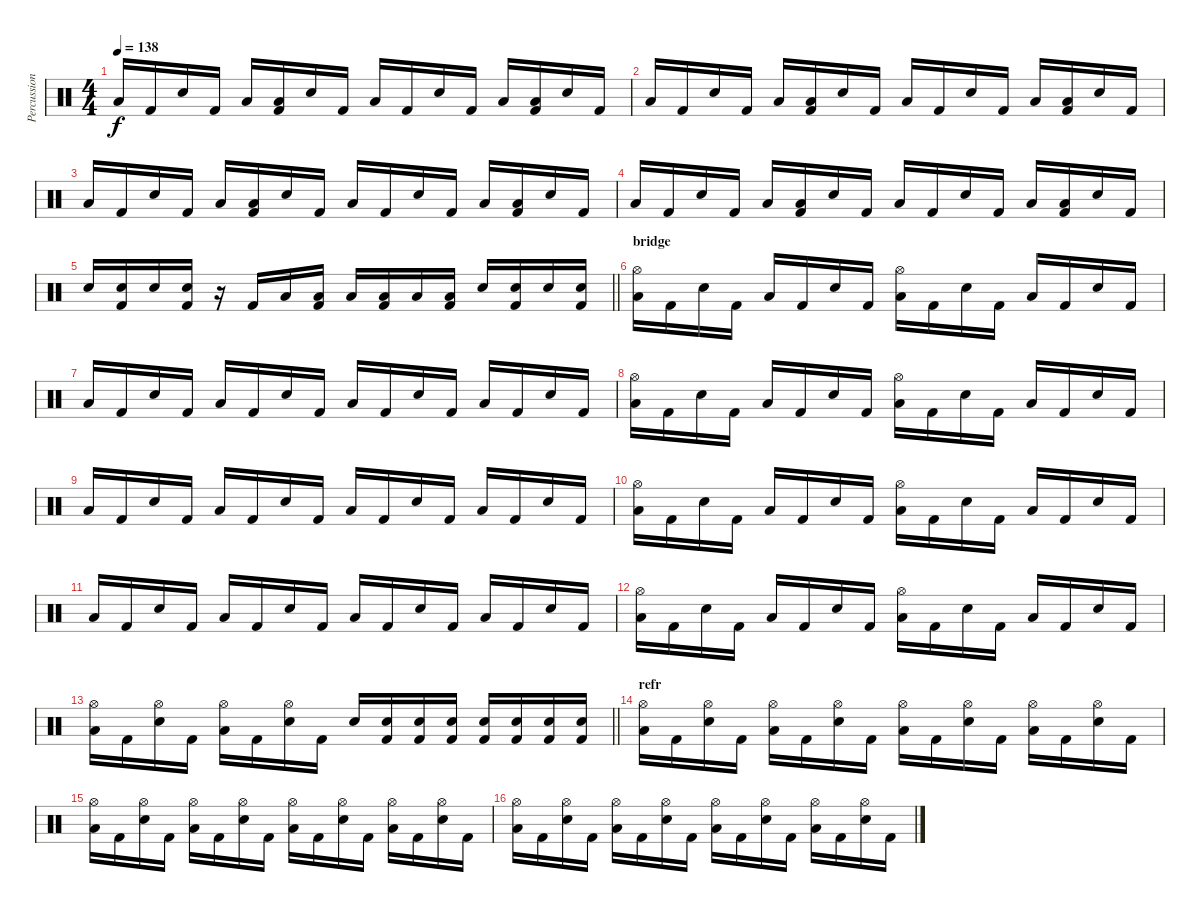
\track ("Percussion" "Percussion") {instrument percussion}
\staff {score}
\articulation defaults
\ts (4 4)
\tempo 138
\clef neutral
\ks c "Low Tom (hit)".16{dy f} "Kick (hit) 2".16 "Snare (hit) 2".16 "Kick (hit) 2".16 "Low Tom (hit)".16
("Low Tom (hit)" "Kick (hit) 2").16 "Snare (hit) 2".16 "Kick (hit) 2".16 "Low Tom (hit)".16 "Kick (hit) 2".16 "Snare (hit) 2".16 "Kick (hit) 2".16 "Low Tom (hit)".16 ("Low Tom (hit)" "Kick (hit) 2").16 "Snare (hit) 2".16 "Kick (hit) 2".16 |
"Low Tom (hit)".16 "Kick (hit) 2".16 "Snare (hit) 2".16 "Kick (hit) 2".16 "Low Tom (hit)".16 ("Low Tom (hit)" "Kick (hit) 2").16 "Snare (hit) 2".16 "Kick (hit) 2".16 "Low Tom (hit)".16 "Kick (hit) 2".16 "Snare (hit) 2".16 "Kick (hit) 2".16 "Low Tom (hit)".16 ("Low Tom (hit)" "Kick (hit) 2").16 "Snare (hit) 2".16 "Kick (hit) 2".16 |
"Low Tom (hit)".16 "Kick (hit) 2".16 "Snare (hit) 2".16 "Kick (hit) 2".16 "Low Tom (hit)".16 ("Low Tom (hit)" "Kick (hit) 2").16 "Snare (hit) 2".16 "Kick (hit) 2".16 "Low Tom (hit)".16 "Kick (hit) 2".16 "Snare (hit) 2".16 "Kick (hit) 2".16 "Low Tom (hit)".16 ("Low Tom (hit)" "Kick (hit) 2").16 "Snare (hit) 2".16 "Kick (hit) 2".16 |
"Low Tom (hit)".16 "Kick (hit) 2".16 "Snare (hit) 2".16 "Kick (hit) 2".16 "Low Tom (hit)".16 ("Low Tom (hit)" "Kick (hit) 2").16 "Snare (hit) 2".16 "Kick (hit) 2".16 "Low Tom (hit)".16 "Kick (hit) 2".16 "Snare (hit) 2".16 "Kick (hit) 2".16 "Low Tom (hit)".16 ("Low Tom (hit)" "Kick (hit) 2").16 "Snare (hit) 2".16 "Kick (hit) 2".16 |
\barLineRight lightlight "Snare (hit) 2".16
("Snare (hit) 2" "Kick (hit) 2").16 "Snare (hit) 2".16 ("Snare (hit) 2" "Kick (hit) 2").16 r.16 "Kick (hit) 2".16 "Low Tom (hit)".16 ("Low Tom (hit)" "Kick (hit) 2").16 "Low Tom (hit)".16 ("Low Tom (hit)" "Kick (hit) 2").16 "Low Tom (hit)".16 ("Low Tom (hit)" "Kick (hit) 2").16 "Snare (hit) 2".16 ("Snare (hit) 2" "Kick (hit) 2").16 "Snare (hit) 2".16 ("Snare (hit) 2" "Kick (hit) 2").16 |
\section ("" "bridge")
("Hi-Hat (open)" "Low Tom (hit)").16 "Kick (hit) 2".16 "Snare (hit) 2".16 "Kick (hit) 2".16 "Low Tom (hit)".16 "Kick (hit) 2".16 "Snare (hit) 2".16 "Kick (hit) 2".16 ("Hi-Hat (open)" "Low Tom (hit)").16 "Kick (hit) 2".16 "Snare (hit) 2".16 "Kick (hit) 2".16 "Low Tom (hit)".16 "Kick (hit) 2".16 "Snare (hit) 2".16 "Kick (hit) 2".16 |
"Low Tom (hit)".16 "Kick (hit) 2".16 "Snare (hit) 2".16 "Kick (hit) 2".16 "Low Tom (hit)".16 "Kick (hit) 2".16 "Snare (hit) 2".16 "Kick (hit) 2".16 "Low Tom (hit)".16 "Kick (hit) 2".16 "Snare (hit) 2".16 "Kick (hit) 2".16 "Low Tom (hit)".16 "Kick (hit) 2".16 "Snare (hit) 2".16 "Kick (hit) 2".16 |
("Hi-Hat (open)" "Low Tom (hit)").16 "Kick (hit) 2".16 "Snare (hit) 2".16 "Kick (hit) 2".16 "Low Tom (hit)".16 "Kick (hit) 2".16 "Snare (hit) 2".16 "Kick (hit) 2".16 ("Hi-Hat (open)" "Low Tom (hit)").16 "Kick (hit) 2".16 "Snare (hit) 2".16 "Kick (hit) 2".16 "Low Tom (hit)".16 "Kick (hit) 2".16 "Snare (hit) 2".16 "Kick (hit) 2".16 |
"Low Tom (hit)".16 "Kick (hit) 2".16 "Snare (hit) 2".16 "Kick (hit) 2".16 "Low Tom (hit)".16 "Kick (hit) 2".16 "Snare (hit) 2".16 "Kick (hit) 2".16 "Low Tom (hit)".16 "Kick (hit) 2".16 "Snare (hit) 2".16 "Kick (hit) 2".16 "Low Tom (hit)".16 "Kick (hit) 2".16 "Snare (hit) 2".16 "Kick (hit) 2".16 |
("Hi-Hat (open)" "Low Tom (hit)").16 "Kick (hit) 2".16 "Snare (hit) 2".16 "Kick (hit) 2".16 "Low Tom (hit)".16 "Kick (hit) 2".16 "Snare (hit) 2".16 "Kick (hit) 2".16 ("Hi-Hat (open)" "Low Tom (hit)").16 "Kick (hit) 2".16 "Snare (hit) 2".16 "Kick (hit) 2".16 "Low Tom (hit)".16 "Kick (hit) 2".16 "Snare (hit) 2".16 "Kick (hit) 2".16 |
"Low Tom (hit)".16 "Kick (hit) 2".16 "Snare (hit) 2".16 "Kick (hit) 2".16 "Low Tom (hit)".16 "Kick (hit) 2".16 "Snare (hit) 2".16 "Kick (hit) 2".16 "Low Tom (hit)".16 "Kick (hit) 2".16 "Snare (hit) 2".16 "Kick (hit) 2".16 "Low Tom (hit)".16 "Kick (hit) 2".16 "Snare (hit) 2".16 "Kick (hit) 2".16 |
("Hi-Hat (open)" "Low Tom (hit)").16 "Kick (hit) 2".16 "Snare (hit) 2".16 "Kick (hit) 2".16 "Low Tom (hit)".16 "Kick (hit) 2".16 "Snare (hit) 2".16 "Kick (hit) 2".16 ("Hi-Hat (open)" "Low Tom (hit)").16 "Kick (hit) 2".16 "Snare (hit) 2".16 "Kick (hit) 2".16 "Low Tom (hit)".16 "Kick (hit) 2".16 "Snare (hit) 2".16 "Kick (hit) 2".16 |
\barLineRight lightlight
("Hi-Hat (open)" "Low Tom (hit)").16 "Kick (hit) 2".16 ("Hi-Hat (open)" "Snare (hit) 2").16 "Kick (hit) 2".16 ("Hi-Hat (open)" "Low Tom (hit)").16 "Kick (hit) 2".16 ("Hi-Hat (open)" "Snare (hit) 2").16 "Kick (hit) 2".16 "Snare (hit) 2".16 ("Snare (hit) 2" "Kick (hit) 2").16 ("Snare (hit) 2" "Kick (hit) 2").16 ("Snare (hit) 2" "Kick (hit) 2").16 ("Snare (hit) 2" "Kick (hit) 2").16 ("Snare (hit) 2" "Kick (hit) 2").16 ("Snare (hit) 2" "Kick (hit) 2").16 ("Snare (hit) 2" "Kick (hit) 2").16 |
\section ("" "refr")
("Hi-Hat (open)" "Low Tom (hit)").16 "Kick (hit) 2".16 ("Hi-Hat (open)" "Snare (hit) 2").16 "Kick (hit) 2".16 ("Hi-Hat (open)" "Low Tom (hit)").16 "Kick (hit) 2".16 ("Hi-Hat (open)" "Snare (hit) 2").16 "Kick (hit) 2".16 ("Hi-Hat (open)" "Low Tom (hit)").16 "Kick (hit) 2".16 ("Hi-Hat (open)" "Snare (hit) 2").16 "Kick (hit) 2".16 ("Hi-Hat (open)" "Low Tom (hit)").16 "Kick (hit) 2".16 ("Hi-Hat (open)" "Snare (hit) 2").16 "Kick (hit) 2".16 |
("Hi-Hat (open)" "Low Tom (hit)").16 "Kick (hit) 2".16 ("Hi-Hat (open)" "Snare (hit) 2").16 "Kick (hit) 2".16 ("Hi-Hat (open)" "Low Tom (hit)").16 "Kick (hit) 2".16 ("Hi-Hat (open)" "Snare (hit) 2").16 "Kick (hit) 2".16 ("Hi-Hat (open)" "Low Tom (hit)").16 "Kick (hit) 2".16 ("Hi-Hat (open)" "Snare (hit) 2").16 "Kick (hit) 2".16 ("Hi-Hat (open)" "Low Tom (hit)").16 "Kick (hit) 2".16 ("Hi-Hat (open)" "Snare (hit) 2").16 "Kick (hit) 2".16 |
("Hi-Hat (open)" "Low Tom (hit)").16 "Kick (hit) 2".16 ("Hi-Hat (open)" "Snare (hit) 2").16 "Kick (hit) 2".16 ("Hi-Hat (open)" "Low Tom (hit)").16 "Kick (hit) 2".16 ("Hi-Hat (open)" "Snare (hit) 2").16 "Kick (hit) 2".16 ("Hi-Hat (open)" "Low Tom (hit)").16 "Kick (hit) 2".16 ("Hi-Hat (open)" "Snare (hit) 2").16 "Kick (hit) 2".16 ("Hi-Hat (open)" "Low Tom (hit)").16 "Kick (hit) 2".16 ("Hi-Hat (open)" "Snare (hit) 2").16 "Kick (hit) 2".16
